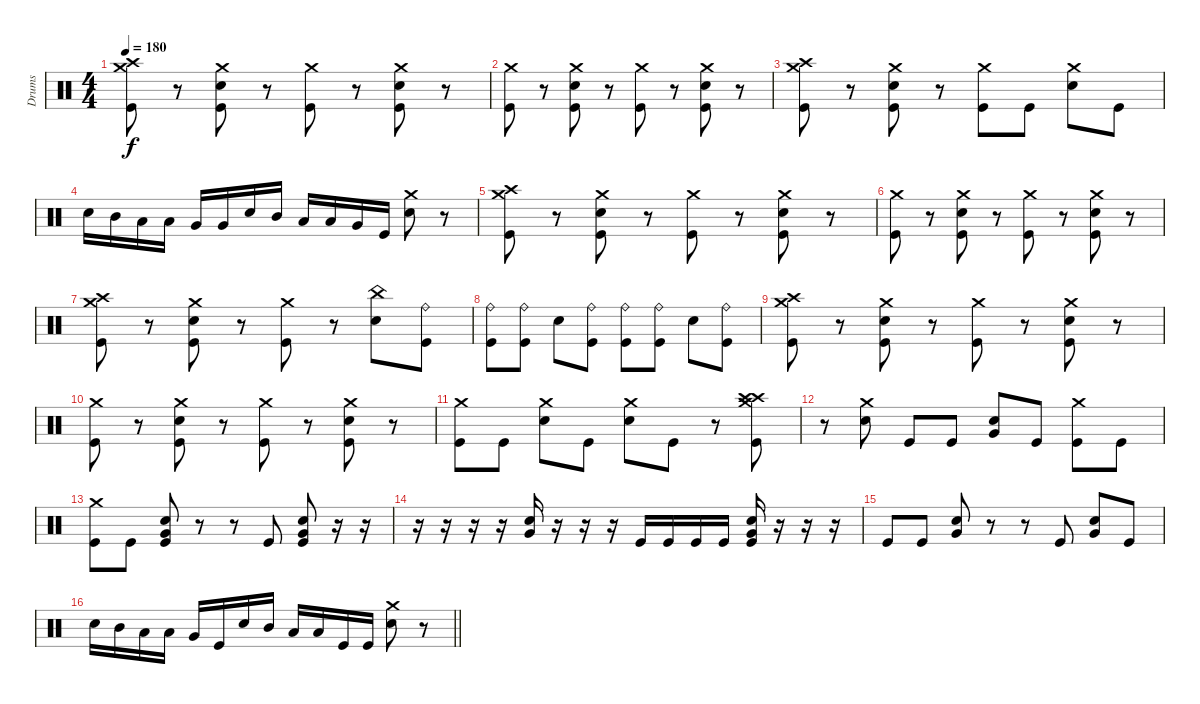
\track ("Drums" "Drums") {instrument percussion}
\staff {score}
\articulation defaults
\ts (4 4)
\tempo 180
\clef neutral
\ks c
("Crash high (hit)" "Crash medium (hit)" "Kick (hit)").8{dy f} r.8 ("Kick (hit)" "Snare (hit) 2" "Crash medium (hit)").8 r.8 ("Crash medium (hit)" "Kick (hit)").8 r.8 ("Crash medium (hit)" "Kick (hit)" "Snare (hit) 2").8 r.8 |
("Crash medium (hit)" "Kick (hit)").8 r.8 ("Kick (hit)" "Snare (hit) 2" "Crash medium (hit)").8 r.8 ("Crash medium (hit)" "Kick (hit)").8 r.8 ("Crash medium (hit)" "Kick (hit)" "Snare (hit) 2").8 r.8 |
("Crash high (hit)" "Crash medium (hit)" "Kick (hit)").8 r.8 ("Kick (hit)" "Snare (hit) 2" "Crash medium (hit)").8 r.8 ("Crash medium (hit)" "Kick (hit)").8 "Kick (hit)".8 ("Crash medium (hit)" "Snare (hit) 2").8 "Kick (hit)".8 |
"Snare (hit) 2".16 "Mid Tom (hit)".16 "Low Tom (hit)".16 "Low Tom (hit)".16 "Very Low Tom (hit)".16 "Very Low Tom (hit)".16 "Snare (hit) 2".16 "Mid Tom (hit)".16 "Low Tom (hit)".16 "Low Tom (hit)".16 "Very Low Tom (hit)".16 "Kick (hit)".16 ("Snare (hit) 2" "Crash medium (hit)").8 r.8 |
("Crash high (hit)" "Crash medium (hit)" "Kick (hit)").8 r.8 ("Kick (hit)" "Snare (hit) 2" "Crash medium (hit)").8 r.8 ("Crash medium (hit)" "Kick (hit)").8 r.8 ("Crash medium (hit)" "Kick (hit)" "Snare (hit) 2").8 r.8 |
("Crash medium (hit)" "Kick (hit)").8 r.8 ("Kick (hit)" "Snare (hit) 2" "Crash medium (hit)").8 r.8 ("Crash medium (hit)" "Kick (hit)").8 r.8 ("Crash medium (hit)" "Kick (hit)" "Snare (hit) 2").8 r.8 |
("Crash high (hit)" "Crash medium (hit)" "Kick (hit)").8 r.8 ("Kick (hit)" "Snare (hit) 2" "Crash medium (hit)").8 r.8 ("Crash medium (hit)" "Kick (hit)").8 r.8 ("China (hit)" "Snare (hit) 2").8 ("Ride (bell)" "Kick (hit)").8 |
("Kick (hit)" "Ride (bell)").8 ("Kick (hit)" "Ride (bell)").8 "Snare (hit) 2".8 ("Kick (hit)" "Ride (bell)").8 ("Kick (hit)" "Ride (bell)").8 ("Kick (hit)" "Ride (bell)").8 "Snare (hit) 2".8 ("Kick (hit)" "Ride (bell)").8 |
("Crash high (hit)" "Crash medium (hit)" "Kick (hit)").8 r.8 ("Kick (hit)" "Snare (hit) 2" "Crash medium (hit)").8 r.8 ("Crash medium (hit)" "Kick (hit)").8 r.8 ("Crash medium (hit)" "Kick (hit)" "Snare (hit) 2").8 r.8 |
("Crash medium (hit)" "Kick (hit)").8 r.8 ("Kick (hit)" "Snare (hit) 2" "Crash medium (hit)").8 r.8 ("Crash medium (hit)" "Kick (hit)").8 r.8 ("Crash medium (hit)" "Kick (hit)" "Snare (hit) 2").8 r.8 |
("Crash medium (hit)" "Kick (hit)").8 "Kick (hit)".8 ("Snare (hit) 2" "Crash medium (hit)").8 "Kick (hit)".8 ("Crash medium (hit)" "Snare (hit) 2").8 "Kick (hit)".8 r.8 ("Crash medium (hit)" "Crash high (hit)" "Crash high (hit)" "Kick (hit)").8 |
r.8 ("Crash medium (hit)" "Snare (hit) 2").8 "Kick (hit)".8 "Kick (hit)".8 ("Snare (hit) 2" "Very Low Tom (hit)").8 "Kick (hit)".8 ("Kick (hit)" "Crash medium (hit)").8 "Kick (hit)".8 |
("Kick (hit)" "Crash medium (hit)").8 "Kick (hit)".8 ("Snare (hit) 2" "Very Low Tom (hit)" "Kick (hit)").8 r.8 r.8 "Kick (hit)".8 ("Snare (hit) 2" "Very Low Tom (hit)" "Kick (hit)").8 r.16 r.16 |
r.16 r.16 r.16 r.16 ("Snare (hit) 2" "Very Low Tom (hit)").16 r.16 r.16 r.16 "Kick (hit)".16 "Kick (hit)".16 "Kick (hit)".16 "Kick (hit)".16 ("Kick (hit)" "Snare (hit) 2" "Very Low Tom (hit)").16 r.16 r.16 r.16 |
"Kick (hit)".8 "Kick (hit)".8 ("Snare (hit) 2" "Very Low Tom (hit)").8 r.8 r.8 "Kick (hit)".8 ("Snare (hit) 2" "Very Low Tom (hit)").8 "Kick (hit)".8 |
\barLineRight lightlight "Snare (hit) 2".16 "Mid Tom (hit)".16 "Low Tom (hit)".16 "Low Tom (hit)".16 "Very Low Tom (hit)".16 "Kick (hit)".16 "Snare (hit) 2".16 "Mid Tom (hit)".16 "Low Tom (hit)".16 "Low Tom (hit)".16 "Kick (hit)".16 "Kick (hit)".16
("Snare (hit) 2" "Crash medium (hit)").8 r.8
